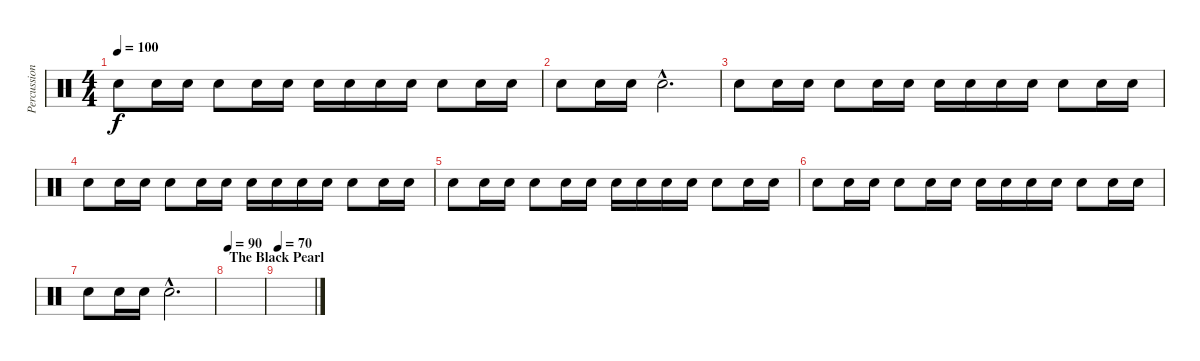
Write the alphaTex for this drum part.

\track ("Percussions" "Percussion") {instrument percussion}
\staff {score}
\articulation defaults
\ts (4 4)
\tempo 100
\clef neutral
\ks c "Snare (hit) 2".8{dy f} "Snare (hit) 2".16 "Snare (hit) 2".16 "Snare (hit) 2".8 "Snare (hit) 2".16 "Snare (hit) 2".16 "Snare (hit) 2".16 "Snare (hit) 2".16 "Snare (hit) 2".16 "Snare (hit) 2".16 "Snare (hit) 2".8 "Snare (hit) 2".16 "Snare (hit) 2".16
|
"Snare (hit) 2".8 "Snare (hit) 2".16 "Snare (hit) 2".16 "Snare (hit) 2"{hac}.2{d} |
"Snare (hit) 2".8 "Snare (hit) 2".16 "Snare (hit) 2".16 "Snare (hit) 2".8 "Snare (hit) 2".16 "Snare (hit) 2".16 "Snare (hit) 2".16 "Snare (hit) 2".16 "Snare (hit) 2".16 "Snare (hit) 2".16 "Snare (hit) 2".8 "Snare (hit) 2".16 "Snare (hit) 2".16 |
"Snare (hit) 2".8 "Snare (hit) 2".16 "Snare (hit) 2".16 "Snare (hit) 2".8 "Snare (hit) 2".16 "Snare (hit) 2".16 "Snare (hit) 2".16 "Snare (hit) 2".16 "Snare (hit) 2".16 "Snare (hit) 2".16 "Snare (hit) 2".8 "Snare (hit) 2".16 "Snare (hit) 2".16 |
"Snare (hit) 2".8 "Snare (hit) 2".16 "Snare (hit) 2".16 "Snare (hit) 2".8 "Snare (hit) 2".16 "Snare (hit) 2".16 "Snare (hit) 2".16 "Snare (hit) 2".16 "Snare (hit) 2".16 "Snare (hit) 2".16 "Snare (hit) 2".8 "Snare (hit) 2".16 "Snare (hit) 2".16 |
"Snare (hit) 2".8 "Snare (hit) 2".16 "Snare (hit) 2".16 "Snare (hit) 2".8 "Snare (hit) 2".16 "Snare (hit) 2".16 "Snare (hit) 2".16 "Snare (hit) 2".16 "Snare (hit) 2".16 "Snare (hit) 2".16 "Snare (hit) 2".8 "Snare (hit) 2".16 "Snare (hit) 2".16 |
"Snare (hit) 2".8 "Snare (hit) 2".16 "Snare (hit) 2".16 "Snare (hit) 2"{hac}.2{d} |
\section ("" "The Black Pearl")
\tempo 90
|
\tempo 70
